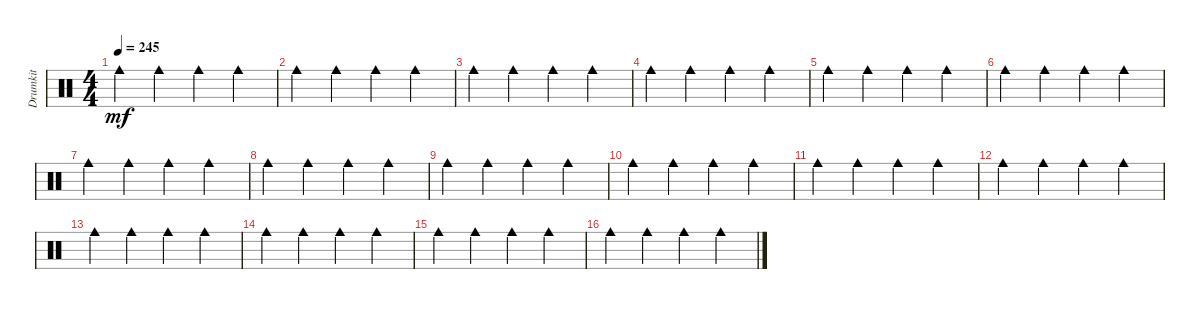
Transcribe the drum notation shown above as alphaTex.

\track ("Drumkit" "Drumkit") {instrument percussion}
\staff {score}
\articulation defaults
\ts (4 4)
\tempo 245
\clef neutral
\ks c "Cowbell medium (hit)".4{dy mf} "Cowbell medium (hit)".4 "Cowbell medium (hit)".4 "Cowbell medium (hit)".4
|
"Cowbell medium (hit)".4 "Cowbell medium (hit)".4 "Cowbell medium (hit)".4 "Cowbell medium (hit)".4 |
"Cowbell medium (hit)".4 "Cowbell medium (hit)".4 "Cowbell medium (hit)".4 "Cowbell medium (hit)".4 |
"Cowbell medium (hit)".4 "Cowbell medium (hit)".4 "Cowbell medium (hit)".4 "Cowbell medium (hit)".4 |
"Cowbell medium (hit)".4 "Cowbell medium (hit)".4 "Cowbell medium (hit)".4 "Cowbell medium (hit)".4 |
"Cowbell medium (hit)".4 "Cowbell medium (hit)".4 "Cowbell medium (hit)".4 "Cowbell medium (hit)".4 |
"Cowbell medium (hit)".4 "Cowbell medium (hit)".4 "Cowbell medium (hit)".4 "Cowbell medium (hit)".4 |
"Cowbell medium (hit)".4 "Cowbell medium (hit)".4 "Cowbell medium (hit)".4 "Cowbell medium (hit)".4 |
"Cowbell medium (hit)".4 "Cowbell medium (hit)".4 "Cowbell medium (hit)".4 "Cowbell medium (hit)".4 |
"Cowbell medium (hit)".4 "Cowbell medium (hit)".4 "Cowbell medium (hit)".4 "Cowbell medium (hit)".4 |
"Cowbell medium (hit)".4 "Cowbell medium (hit)".4 "Cowbell medium (hit)".4 "Cowbell medium (hit)".4 |
"Cowbell medium (hit)".4 "Cowbell medium (hit)".4 "Cowbell medium (hit)".4 "Cowbell medium (hit)".4 |
"Cowbell medium (hit)".4 "Cowbell medium (hit)".4 "Cowbell medium (hit)".4 "Cowbell medium (hit)".4 |
"Cowbell medium (hit)".4 "Cowbell medium (hit)".4 "Cowbell medium (hit)".4 "Cowbell medium (hit)".4 |
"Cowbell medium (hit)".4 "Cowbell medium (hit)".4 "Cowbell medium (hit)".4 "Cowbell medium (hit)".4 |
"Cowbell medium (hit)".4 "Cowbell medium (hit)".4 "Cowbell medium (hit)".4 "Cowbell medium (hit)".4
